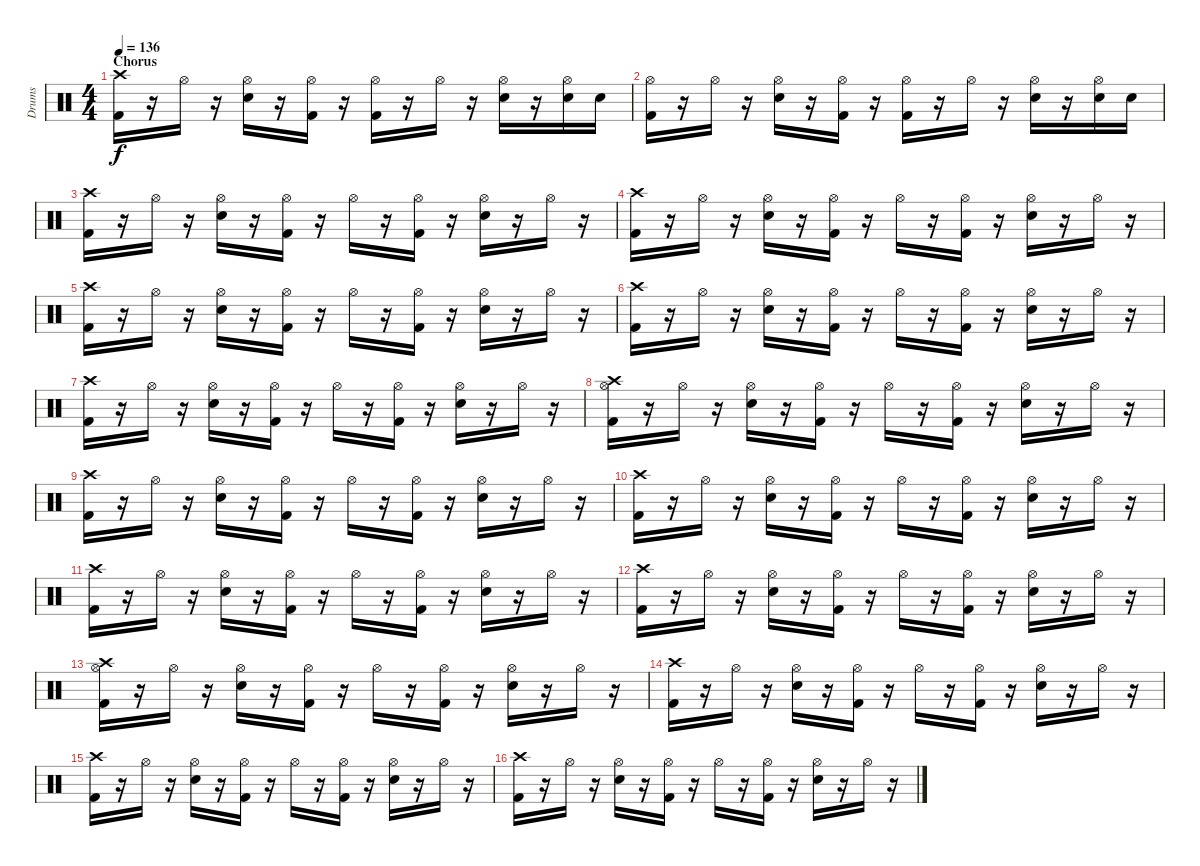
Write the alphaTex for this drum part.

\track ("Drums" "Drums") {instrument percussion}
\staff {score}
\articulation defaults
\ts (4 4)
\section ("" "Chorus")
\tempo 136
\clef neutral
\ks c
("Kick (hit) 2" "Crash high (hit)").16{dy f} r.16 "Hi-Hat (open)".16 r.16 ("Electric Snare (hit)" "Hi-Hat (open)").16 r.16 ("Kick (hit) 2" "Hi-Hat (open)").16 r.16 ("Kick (hit) 2" "Hi-Hat (open)").16 r.16 "Hi-Hat (open)".16 r.16 ("Electric Snare (hit)" "Hi-Hat (open)").16 r.16 ("Electric Snare (hit)" "Hi-Hat (open)").16 "Electric Snare (hit)".16 |
("Kick (hit) 2" "Hi-Hat (open)").16 r.16 "Hi-Hat (open)".16 r.16 ("Electric Snare (hit)" "Hi-Hat (open)").16 r.16 ("Kick (hit) 2" "Hi-Hat (open)").16 r.16 ("Kick (hit) 2" "Hi-Hat (open)").16 r.16 "Hi-Hat (open)".16 r.16 ("Electric Snare (hit)" "Hi-Hat (open)").16 r.16 ("Electric Snare (hit)" "Hi-Hat (open)").16 "Electric Snare (hit)".16 |
("Kick (hit) 2" "Crash high (hit)").16 r.16 "Hi-Hat (open)".16 r.16 ("Electric Snare (hit)" "Hi-Hat (open)").16 r.16 ("Kick (hit) 2" "Hi-Hat (open)").16 r.16 "Hi-Hat (open)".16 r.16 ("Kick (hit) 2" "Hi-Hat (open)").16 r.16 ("Electric Snare (hit)" "Hi-Hat (open)").16 r.16 "Hi-Hat (open)".16 r.16 |
("Kick (hit) 2" "Crash high (hit)").16 r.16 "Hi-Hat (open)".16 r.16 ("Electric Snare (hit)" "Hi-Hat (open)").16 r.16 ("Kick (hit) 2" "Hi-Hat (open)").16 r.16 "Hi-Hat (open)".16 r.16 ("Kick (hit) 2" "Hi-Hat (open)").16 r.16 ("Electric Snare (hit)" "Hi-Hat (open)").16 r.16 "Hi-Hat (open)".16 r.16 |
("Kick (hit) 2" "Crash high (hit)").16 r.16 "Hi-Hat (open)".16 r.16 ("Electric Snare (hit)" "Hi-Hat (open)").16 r.16 ("Kick (hit) 2" "Hi-Hat (open)").16 r.16 "Hi-Hat (open)".16 r.16 ("Kick (hit) 2" "Hi-Hat (open)").16 r.16 ("Electric Snare (hit)" "Hi-Hat (open)").16 r.16 "Hi-Hat (open)".16 r.16 |
("Kick (hit) 2" "Crash high (hit)").16 r.16 "Hi-Hat (open)".16 r.16 ("Electric Snare (hit)" "Hi-Hat (open)").16 r.16 ("Kick (hit) 2" "Hi-Hat (open)").16 r.16 "Hi-Hat (open)".16 r.16 ("Kick (hit) 2" "Hi-Hat (open)").16 r.16 ("Electric Snare (hit)" "Hi-Hat (open)").16 r.16 "Hi-Hat (open)".16 r.16 |
("Kick (hit) 2" "Crash high (hit)").16 r.16 "Hi-Hat (open)".16 r.16 ("Electric Snare (hit)" "Hi-Hat (open)").16 r.16 ("Kick (hit) 2" "Hi-Hat (open)").16 r.16 "Hi-Hat (open)".16 r.16 ("Kick (hit) 2" "Hi-Hat (open)").16 r.16 ("Electric Snare (hit)" "Hi-Hat (open)").16 r.16 "Hi-Hat (open)".16 r.16 |
("Kick (hit) 2" "Hi-Hat (open)" "Crash high (hit)").16 r.16 "Hi-Hat (open)".16 r.16 ("Electric Snare (hit)" "Hi-Hat (open)").16 r.16 ("Kick (hit) 2" "Hi-Hat (open)").16 r.16 "Hi-Hat (open)".16 r.16 ("Kick (hit) 2" "Hi-Hat (open)").16 r.16 ("Electric Snare (hit)" "Hi-Hat (open)").16 r.16 "Hi-Hat (open)".16 r.16 |
("Kick (hit) 2" "Crash high (hit)").16 r.16 "Hi-Hat (open)".16 r.16 ("Electric Snare (hit)" "Hi-Hat (open)").16 r.16 ("Kick (hit) 2" "Hi-Hat (open)").16 r.16 "Hi-Hat (open)".16 r.16 ("Kick (hit) 2" "Hi-Hat (open)").16 r.16 ("Electric Snare (hit)" "Hi-Hat (open)").16 r.16 "Hi-Hat (open)".16 r.16 |
("Kick (hit) 2" "Crash high (hit)").16 r.16 "Hi-Hat (open)".16 r.16 ("Electric Snare (hit)" "Hi-Hat (open)").16 r.16 ("Kick (hit) 2" "Hi-Hat (open)").16 r.16 "Hi-Hat (open)".16 r.16 ("Kick (hit) 2" "Hi-Hat (open)").16 r.16 ("Electric Snare (hit)" "Hi-Hat (open)").16 r.16 "Hi-Hat (open)".16 r.16 |
("Kick (hit) 2" "Crash high (hit)").16 r.16 "Hi-Hat (open)".16 r.16 ("Electric Snare (hit)" "Hi-Hat (open)").16 r.16 ("Kick (hit) 2" "Hi-Hat (open)").16 r.16 "Hi-Hat (open)".16 r.16 ("Kick (hit) 2" "Hi-Hat (open)").16 r.16 ("Electric Snare (hit)" "Hi-Hat (open)").16 r.16 "Hi-Hat (open)".16 r.16 |
("Kick (hit) 2" "Crash high (hit)").16 r.16 "Hi-Hat (open)".16 r.16 ("Electric Snare (hit)" "Hi-Hat (open)").16 r.16 ("Kick (hit) 2" "Hi-Hat (open)").16 r.16 "Hi-Hat (open)".16 r.16 ("Kick (hit) 2" "Hi-Hat (open)").16 r.16 ("Electric Snare (hit)" "Hi-Hat (open)").16 r.16 "Hi-Hat (open)".16 r.16 |
("Kick (hit) 2" "Hi-Hat (open)" "Crash high (hit)").16 r.16 "Hi-Hat (open)".16 r.16 ("Electric Snare (hit)" "Hi-Hat (open)").16 r.16 ("Kick (hit) 2" "Hi-Hat (open)").16 r.16 "Hi-Hat (open)".16 r.16 ("Kick (hit) 2" "Hi-Hat (open)").16 r.16 ("Electric Snare (hit)" "Hi-Hat (open)").16 r.16 "Hi-Hat (open)".16 r.16 |
("Kick (hit) 2" "Crash high (hit)").16 r.16 "Hi-Hat (open)".16 r.16 ("Electric Snare (hit)" "Hi-Hat (open)").16 r.16 ("Kick (hit) 2" "Hi-Hat (open)").16 r.16 "Hi-Hat (open)".16 r.16 ("Kick (hit) 2" "Hi-Hat (open)").16 r.16 ("Electric Snare (hit)" "Hi-Hat (open)").16 r.16 "Hi-Hat (open)".16 r.16 |
("Kick (hit) 2" "Crash high (hit)").16 r.16 "Hi-Hat (open)".16 r.16 ("Electric Snare (hit)" "Hi-Hat (open)").16 r.16 ("Kick (hit) 2" "Hi-Hat (open)").16 r.16 "Hi-Hat (open)".16 r.16 ("Kick (hit) 2" "Hi-Hat (open)").16 r.16 ("Electric Snare (hit)" "Hi-Hat (open)").16 r.16 "Hi-Hat (open)".16 r.16 |
("Kick (hit) 2" "Crash high (hit)").16 r.16 "Hi-Hat (open)".16 r.16 ("Electric Snare (hit)" "Hi-Hat (open)").16 r.16 ("Kick (hit) 2" "Hi-Hat (open)").16 r.16 "Hi-Hat (open)".16 r.16 ("Kick (hit) 2" "Hi-Hat (open)").16 r.16 ("Electric Snare (hit)" "Hi-Hat (open)").16 r.16 "Hi-Hat (open)".16 r.16
